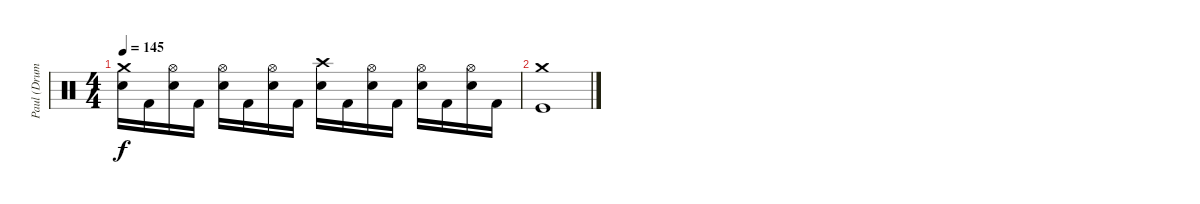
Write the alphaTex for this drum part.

\track ("Paul (Drums)" "Paul (Drum") {instrument percussion}
\staff {score}
\articulation defaults
\ts (4 4)
\tempo 145
\clef neutral
\ks c
("Crash medium (hit)" "Electric Snare (hit)").16{dy f} "Kick (hit) 2".16 ("Hi-Hat (open)" "Electric Snare (hit)").16 "Kick (hit) 2".16 ("Hi-Hat (open)" "Electric Snare (hit)").16 "Kick (hit) 2".16 ("Hi-Hat (open)" "Electric Snare (hit)").16 "Kick (hit) 2".16 ("Crash high (hit)" "Electric Snare (hit)").16 "Kick (hit) 2".16 ("Hi-Hat (open)" "Electric Snare (hit)").16 "Kick (hit) 2".16 ("Hi-Hat (open)" "Electric Snare (hit)").16 "Kick (hit) 2".16 ("Hi-Hat (open)" "Electric Snare (hit)").16 "Kick (hit) 2".16 |
("Crash medium (hit)" "Kick (hit)").1
